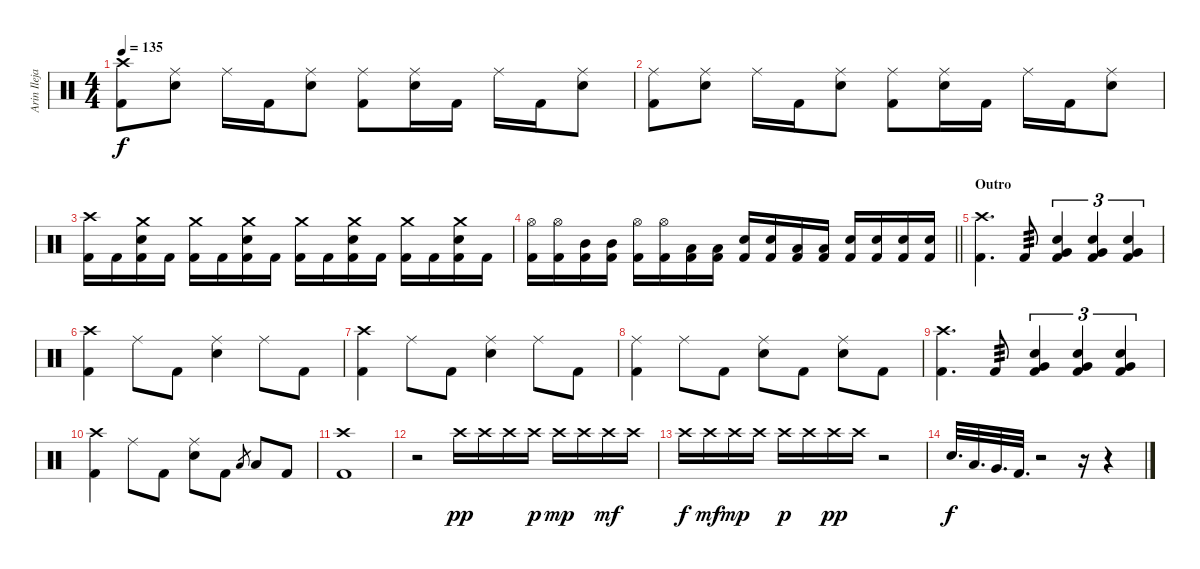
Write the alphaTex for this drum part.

\track ("Arin Ilejay" "Arin Ileja") {instrument percussion}
\staff {score}
\articulation defaults
\ts (4 4)
\tempo 135
\clef neutral
\ks c
("Crash high (hit)" "Kick (hit) 2").8{dy f} ("Ride (middle)" "Electric Snare (hit)").8 "Ride (middle)".16 "Kick (hit) 2".16 ("Ride (middle)" "Electric Snare (hit)").8 ("Ride (middle)" "Kick (hit) 2").8 ("Ride (middle)" "Electric Snare (hit)").16 "Kick (hit) 2".16 "Ride (middle)".16 "Kick (hit) 2".16 ("Ride (middle)" "Electric Snare (hit)").8 |
("Ride (middle)" "Kick (hit) 2").8 ("Ride (middle)" "Electric Snare (hit)").8 "Ride (middle)".16 "Kick (hit) 2".16 ("Ride (middle)" "Electric Snare (hit)").8 ("Ride (middle)" "Kick (hit) 2").8 ("Ride (middle)" "Electric Snare (hit)").16 "Kick (hit) 2".16 "Ride (middle)".16 "Kick (hit) 2".16 ("Ride (middle)" "Electric Snare (hit)").8 |
("Crash high (hit)" "Kick (hit) 2").16 "Kick (hit) 2".16 ("Crash medium (hit)" "Electric Snare (hit)" "Kick (hit) 2").16 "Kick (hit) 2".16 ("Crash medium (hit)" "Kick (hit) 2").16 "Kick (hit) 2".16 ("Crash medium (hit)" "Electric Snare (hit)" "Kick (hit) 2").16 "Kick (hit) 2".16 ("Crash medium (hit)" "Kick (hit) 2").16 "Kick (hit) 2".16 ("Crash medium (hit)" "Electric Snare (hit)" "Kick (hit) 2").16 "Kick (hit) 2".16 ("Crash medium (hit)" "Kick (hit) 2").16 "Kick (hit) 2".16 ("Crash medium (hit)" "Electric Snare (hit)" "Kick (hit) 2").16 "Kick (hit) 2".16 |
\barLineRight lightlight
("Hi-Hat (open)" "Kick (hit) 2").16 ("Hi-Hat (open)" "Kick (hit) 2").16 ("Mid Tom (hit)" "Kick (hit) 2").16 ("Mid Tom (hit)" "Kick (hit) 2").16 ("Hi-Hat (open)" "Kick (hit) 2").16 ("Hi-Hat (open)" "Kick (hit) 2").16 ("Low Tom (hit)" "Kick (hit) 2").16 ("Low Tom (hit)" "Kick (hit) 2").16 ("Electric Snare (hit)" "Kick (hit) 2").16 ("Electric Snare (hit)" "Kick (hit) 2").16 ("Low Tom (hit)" "Kick (hit) 2").16 ("Low Tom (hit)" "Kick (hit) 2").16 ("Electric Snare (hit)" "Kick (hit) 2").16 ("Electric Snare (hit)" "Kick (hit) 2").16 ("Electric Snare (hit)" "Kick (hit) 2").16 ("Electric Snare (hit)" "Kick (hit) 2").16 |
\section ("" "Outro")
("Crash high (hit)" "Kick (hit) 2").4{d} "Kick (hit) 2".8{tp 3} ("Electric Snare (hit)" "Very Low Tom (hit)" "Kick (hit) 2").4{tu (3 2)} ("Electric Snare (hit)" "Very Low Tom (hit)" "Kick (hit) 2").4{tu (3 2)} ("Electric Snare (hit)" "Very Low Tom (hit)" "Kick (hit) 2").4{tu (3 2)} |
("Crash high (hit)" "Kick (hit) 2").4 "Ride (middle)".8 "Kick (hit) 2".8 ("Ride (middle)" "Electric Snare (hit)").4 "Ride (middle)".8 "Kick (hit) 2".8 |
("Crash high (hit)" "Kick (hit) 2").4 "Ride (middle)".8 "Kick (hit) 2".8 ("Ride (middle)" "Electric Snare (hit)").4 "Ride (middle)".8 "Kick (hit) 2".8 |
("Ride (middle)" "Kick (hit) 2").4 "Ride (middle)".8 "Kick (hit) 2".8 ("Ride (middle)" "Electric Snare (hit)").8 "Kick (hit) 2".8 ("Ride (middle)" "Electric Snare (hit)").8 "Kick (hit) 2".8 |
("Crash high (hit)" "Kick (hit) 2").4{d} "Kick (hit) 2".8{tp 3} ("Electric Snare (hit)" "Very Low Tom (hit)" "Kick (hit) 2").4{tu (3 2)} ("Electric Snare (hit)" "Very Low Tom (hit)" "Kick (hit) 2").4{tu (3 2)} ("Electric Snare (hit)" "Very Low Tom (hit)" "Kick (hit) 2").4{tu (3 2)} |
("Crash high (hit)" "Kick (hit) 2").4 "Ride (middle)".8 "Kick (hit) 2".8 ("Ride (middle)" "Electric Snare (hit)").8 "Kick (hit) 2".8 "Low Tom (hit)".8{gr} "Low Tom (hit)".8 "Kick (hit) 2".8 |
("Crash high (hit)" "Kick (hit) 2").1 |
r.2 "Crash high (hit)".16{dy pp} "Crash high (hit)".16 "Crash high (hit)".16 "Crash high (hit)".16{dy p} "Crash high (hit)".16{dy mp} "Crash high (hit)".16 "Crash high (hit)".16{dy mf} "Crash high (hit)".16 |
"Crash high (hit)".16{dy f} "Crash high (hit)".16{dy mf} "Crash high (hit)".16{dy mp} "Crash high (hit)".16 "Crash high (hit)".16{dy p} "Crash high (hit)".16 "Crash high (hit)".16{dy pp} "Crash high (hit)".16 r.2 |
"Electric Snare (hit)".32{d dy f} "Low Tom (hit)".32{d} "Very Low Tom (hit)".32{d} "Kick (hit) 2".32{d} r.2 r.16 r.4
